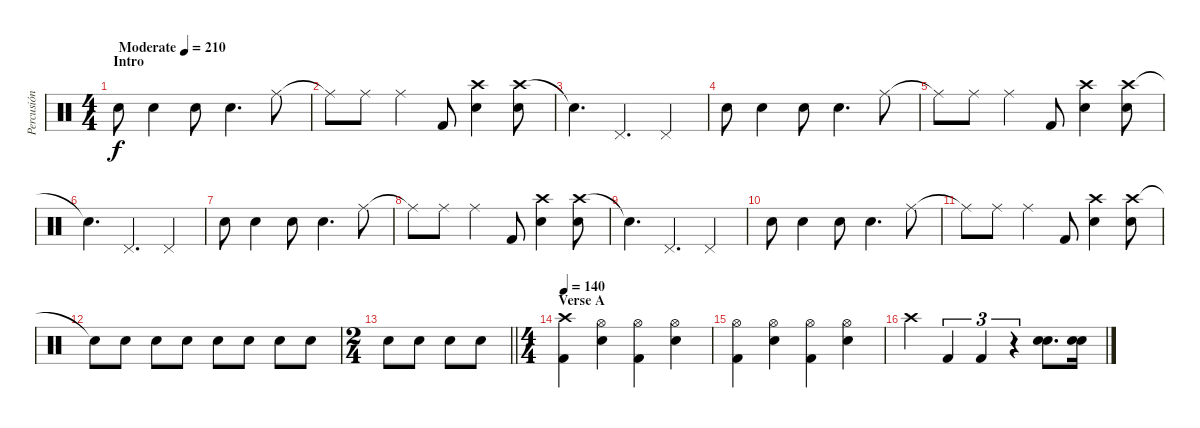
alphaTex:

\track ("Percusión" "Percusión") {instrument percussion}
\staff {score}
\articulation defaults
\ts (4 4)
\section ("" "Intro")
\tempo (210 "Moderate")
\clef neutral
\ks c "Snare (hit) 2".8{dy f} "Snare (hit) 2".4 "Snare (hit) 2".8 "Snare (hit) 2".4{d} "Ride (middle)".8
|
"Ride (middle)"{t}.8 "Ride (middle)".8 "Ride (middle)".4 "Kick (hit) 2".8 ("Crash high (hit)" "Snare (hit) 2").4 ("Crash high (hit)" "Snare (hit) 2").8 |
"Snare (hit)"{t}.4{d} "Pedal Hi-Hat (hit)".4{d} "Pedal Hi-Hat (hit)".4 |
"Snare (hit) 2".8 "Snare (hit) 2".4 "Snare (hit) 2".8 "Snare (hit) 2".4{d} "Ride (middle)".8 |
"Ride (middle)"{t}.8 "Ride (middle)".8 "Ride (middle)".4 "Kick (hit) 2".8 ("Crash high (hit)" "Snare (hit) 2").4 ("Crash high (hit)" "Snare (hit) 2").8 |
"Snare (hit)"{t}.4{d} "Pedal Hi-Hat (hit)".4{d} "Pedal Hi-Hat (hit)".4 |
"Snare (hit) 2".8 "Snare (hit) 2".4 "Snare (hit) 2".8 "Snare (hit) 2".4{d} "Ride (middle)".8 |
"Ride (middle)"{t}.8 "Ride (middle)".8 "Ride (middle)".4 "Kick (hit) 2".8 ("Crash high (hit)" "Snare (hit) 2").4 ("Crash high (hit)" "Snare (hit) 2").8 |
"Snare (hit)"{t}.4{d} "Pedal Hi-Hat (hit)".4{d} "Pedal Hi-Hat (hit)".4 |
"Snare (hit) 2".8 "Snare (hit) 2".4 "Snare (hit) 2".8 "Snare (hit) 2".4{d} "Ride (middle)".8 |
"Ride (middle)"{t}.8 "Ride (middle)".8 "Ride (middle)".4 "Kick (hit) 2".8 ("Crash high (hit)" "Snare (hit) 2").4 ("Crash high (hit)" "Snare (hit) 2").8 |
"Snare (hit)"{t}.8 "Snare (hit) 2".8 "Snare (hit) 2".8 "Snare (hit) 2".8 "Snare (hit) 2".8 "Snare (hit) 2".8 "Snare (hit) 2".8 "Snare (hit) 2".8 |
\ts (2 4)
\barLineRight lightlight "Snare (hit) 2".8 "Snare (hit) 2".8 "Snare (hit) 2".8 "Snare (hit) 2".8
|
\ts (4 4)
\section ("" "Verse A")
\tempo 140
("Crash high (hit)" "Kick (hit) 2").4 ("Hi-Hat (open)" "Electric Snare (hit)").4 ("Hi-Hat (open)" "Kick (hit) 2").4 ("Hi-Hat (open)" "Electric Snare (hit)").4 |
("Hi-Hat (open)" "Kick (hit) 2").4 ("Hi-Hat (open)" "Electric Snare (hit)").4 ("Hi-Hat (open)" "Kick (hit) 2").4 ("Hi-Hat (open)" "Electric Snare (hit)").4 |
"Crash high (hit)".4 "Kick (hit) 2".4{tu (3 2)} "Kick (hit) 2".4{tu (3 2)} r.4{tu (3 2)} ("Electric Snare (hit)" "Snare (hit) 2").8{d} ("Electric Snare (hit)" "Snare (hit) 2").16
